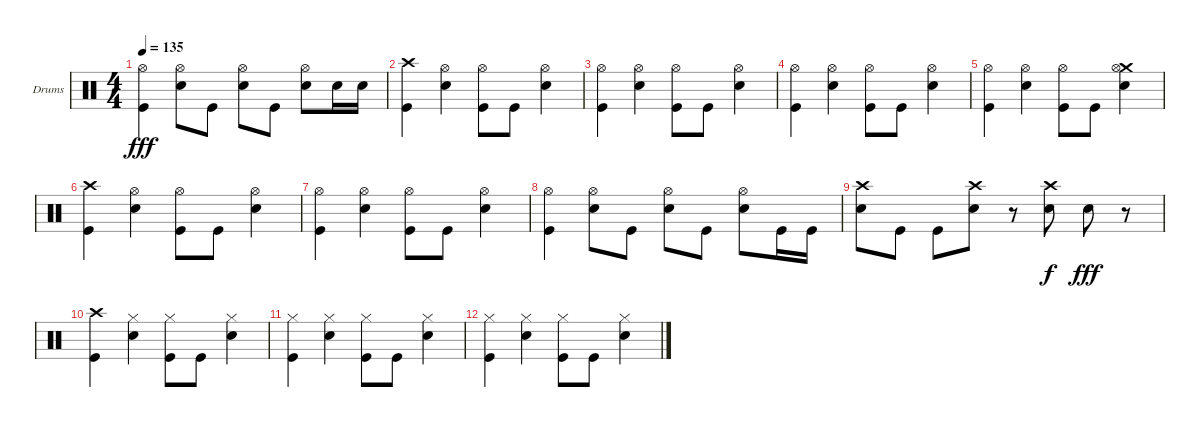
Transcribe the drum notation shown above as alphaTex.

\bracketExtendMode groupsimilarinstruments
\firstSystemTrackNameOrientation horizontal
\otherSystemsTrackNameOrientation horizontal
\track ("Drumkit" "Drums") {instrument percussion}
\staff {score}
\articulation defaults
\ts (4 4)
\tempo 135
\clef neutral
\ks c
("Kick (hit)" "Hi-Hat (open)").4{dy fff} ("Hi-Hat (open)" "Snare (hit) 2").8 "Kick (hit)".8 ("Hi-Hat (open)" "Snare (hit) 2").8 "Kick (hit)".8 ("Hi-Hat (open)" "Snare (hit) 2").8 "Snare (hit) 2".16 "Snare (hit) 2".16 |
("Kick (hit)" "Crash high (hit)").4 ("Hi-Hat (open)" "Snare (hit) 2").4 ("Kick (hit)" "Hi-Hat (open)").8 "Kick (hit)".8 ("Hi-Hat (open)" "Snare (hit) 2").4 |
("Kick (hit)" "Hi-Hat (open)").4 ("Hi-Hat (open)" "Snare (hit) 2").4 ("Kick (hit)" "Hi-Hat (open)").8 "Kick (hit)".8 ("Hi-Hat (open)" "Snare (hit) 2").4 |
("Kick (hit)" "Hi-Hat (open)").4 ("Hi-Hat (open)" "Snare (hit) 2").4 ("Kick (hit)" "Hi-Hat (open)").8 "Kick (hit)".8 ("Hi-Hat (open)" "Snare (hit) 2").4 |
("Kick (hit)" "Hi-Hat (open)").4 ("Hi-Hat (open)" "Snare (hit) 2").4 ("Kick (hit)" "Hi-Hat (open)").8 "Kick (hit)".8 ("Crash medium (hit)" "Hi-Hat (open)" "Snare (hit) 2").4 |
("Kick (hit)" "Crash high (hit)").4 ("Hi-Hat (open)" "Snare (hit) 2").4 ("Kick (hit)" "Hi-Hat (open)").8 "Kick (hit)".8 ("Hi-Hat (open)" "Snare (hit) 2").4 |
("Kick (hit)" "Hi-Hat (open)").4 ("Hi-Hat (open)" "Snare (hit) 2").4 ("Kick (hit)" "Hi-Hat (open)").8 "Kick (hit)".8 ("Hi-Hat (open)" "Snare (hit) 2").4 |
("Kick (hit)" "Hi-Hat (open)").4 ("Hi-Hat (open)" "Snare (hit) 2").8 "Kick (hit)".8 ("Hi-Hat (open)" "Snare (hit) 2").8 "Kick (hit)".8 ("Hi-Hat (open)" "Snare (hit) 2").8 "Kick (hit)".16 "Kick (hit)".16 |
("Crash high (hit)" "Snare (hit) 2").8 "Kick (hit)".8 "Kick (hit)".8 ("Crash high (hit)" "Snare (hit) 2").8 r.8 ("Crash high (hit)" "Snare (hit) 2").8{dy f} "Snare (hit) 2".8{dy fff} r.8 |
("Kick (hit)" "Crash high (hit)").4 ("Hi-Hat (closed)" "Snare (hit) 2").4 ("Kick (hit)" "Hi-Hat (closed)").8 "Kick (hit)".8 ("Hi-Hat (closed)" "Snare (hit) 2").4 |
("Kick (hit)" "Hi-Hat (closed)").4 ("Hi-Hat (closed)" "Snare (hit) 2").4 ("Kick (hit)" "Hi-Hat (closed)").8 "Kick (hit)".8 ("Hi-Hat (closed)" "Snare (hit) 2").4 |
("Kick (hit)" "Hi-Hat (closed)").4 ("Hi-Hat (closed)" "Snare (hit) 2").4 ("Kick (hit)" "Hi-Hat (closed)").8 "Kick (hit)".8 ("Hi-Hat (closed)" "Snare (hit) 2").4
